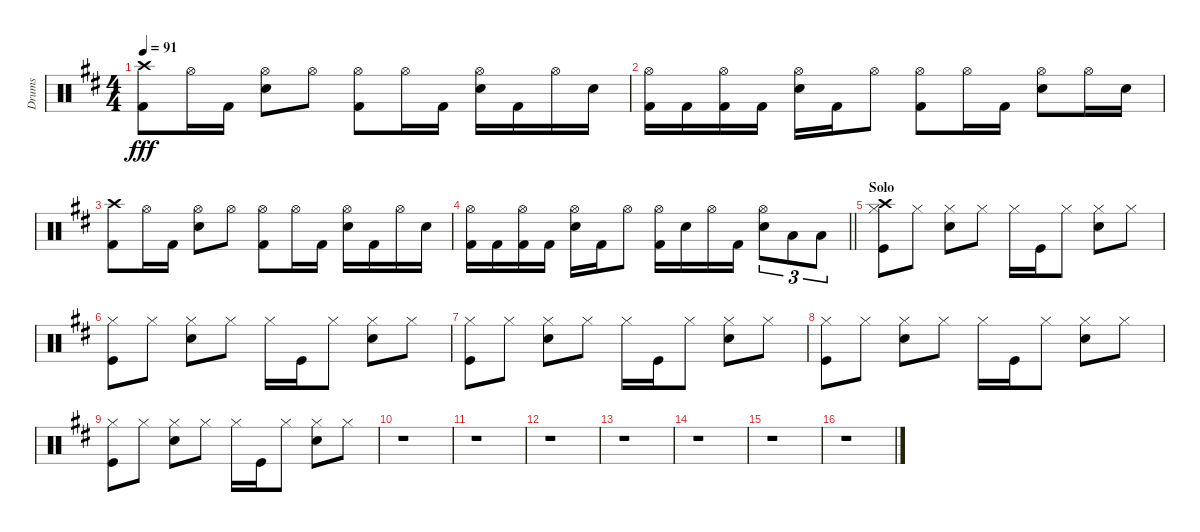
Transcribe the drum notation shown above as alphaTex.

\track ("Drums" "Drums") {instrument percussion}
\staff {score}
\articulation defaults
\ts (4 4)
\tempo 91
\clef neutral
\ks d
("Crash high (hit)" "Kick (hit) 2").8{dy fff} "Hi-Hat (open)".16 "Kick (hit) 2".16 ("Hi-Hat (open)" "Snare (hit) 2").8 "Hi-Hat (open)".8 ("Hi-Hat (open)" "Kick (hit) 2").8 "Hi-Hat (open)".16 "Kick (hit) 2".16 ("Hi-Hat (open)" "Snare (hit) 2").16 "Kick (hit) 2".16 "Hi-Hat (open)".16 "Snare (hit) 2".16 |
("Hi-Hat (open)" "Kick (hit) 2").16 "Kick (hit) 2".16 ("Hi-Hat (open)" "Kick (hit) 2").16 "Kick (hit) 2".16 ("Hi-Hat (open)" "Snare (hit) 2").16 "Kick (hit) 2".16 "Hi-Hat (open)".8 ("Hi-Hat (open)" "Kick (hit) 2").8 "Hi-Hat (open)".16 "Kick (hit) 2".16 ("Hi-Hat (open)" "Snare (hit) 2").8 "Hi-Hat (open)".16 "Snare (hit) 2".16 |
("Crash high (hit)" "Kick (hit) 2").8 "Hi-Hat (open)".16 "Kick (hit) 2".16 ("Hi-Hat (open)" "Snare (hit) 2").8 "Hi-Hat (open)".8 ("Hi-Hat (open)" "Kick (hit) 2").8 "Hi-Hat (open)".16 "Kick (hit) 2".16 ("Hi-Hat (open)" "Snare (hit) 2").16 "Kick (hit) 2".16 "Hi-Hat (open)".16 "Snare (hit) 2".16 |
\barLineRight lightlight
("Hi-Hat (open)" "Kick (hit) 2").16 "Kick (hit) 2".16 ("Hi-Hat (open)" "Kick (hit) 2").16 "Kick (hit) 2".16 ("Hi-Hat (open)" "Snare (hit) 2").16 "Kick (hit) 2".16 "Hi-Hat (open)".8 ("Hi-Hat (open)" "Kick (hit) 2").16 "Snare (hit) 2".16 "Hi-Hat (open)".16 "Kick (hit) 2".16 ("Hi-Hat (open)" "Snare (hit) 2").8{tu (3 2)} "Low Tom (hit)".8{tu (3 2)} "Low Tom (hit)".8{tu (3 2)} |
\section ("" "Solo")
("Hi-Hat (closed)" "Crash high (hit)" "Kick (hit)").8 "Hi-Hat (closed)".8 ("Hi-Hat (closed)" "Snare (hit) 2").8 "Hi-Hat (closed)".8 "Hi-Hat (closed)".16 "Kick (hit)".16 "Hi-Hat (closed)".8 ("Hi-Hat (closed)" "Snare (hit) 2").8 "Hi-Hat (closed)".8 |
("Hi-Hat (closed)" "Kick (hit)").8 "Hi-Hat (closed)".8 ("Hi-Hat (closed)" "Snare (hit) 2").8 "Hi-Hat (closed)".8 "Hi-Hat (closed)".16 "Kick (hit)".16 "Hi-Hat (closed)".8 ("Hi-Hat (closed)" "Snare (hit) 2").8 "Hi-Hat (closed)".8 |
("Hi-Hat (closed)" "Kick (hit)").8{volume 0} "Hi-Hat (closed)".8 ("Hi-Hat (closed)" "Snare (hit) 2").8 "Hi-Hat (closed)".8 "Hi-Hat (closed)".16 "Kick (hit)".16 "Hi-Hat (closed)".8 ("Hi-Hat (closed)" "Snare (hit) 2").8 "Hi-Hat (closed)".8 |
("Hi-Hat (closed)" "Kick (hit)").8 "Hi-Hat (closed)".8 ("Hi-Hat (closed)" "Snare (hit) 2").8 "Hi-Hat (closed)".8 "Hi-Hat (closed)".16 "Kick (hit)".16 "Hi-Hat (closed)".8 ("Hi-Hat (closed)" "Snare (hit) 2").8 "Hi-Hat (closed)".8 |
("Hi-Hat (closed)" "Kick (hit)").8 "Hi-Hat (closed)".8 ("Hi-Hat (closed)" "Snare (hit) 2").8 "Hi-Hat (closed)".8 "Hi-Hat (closed)".16 "Kick (hit)".16 "Hi-Hat (closed)".8 ("Hi-Hat (closed)" "Snare (hit) 2").8 "Hi-Hat (closed)".8 |
r.1 |
r.1 |
r.1 |
r.1 |
r.1 |
r.1 |
r.1
